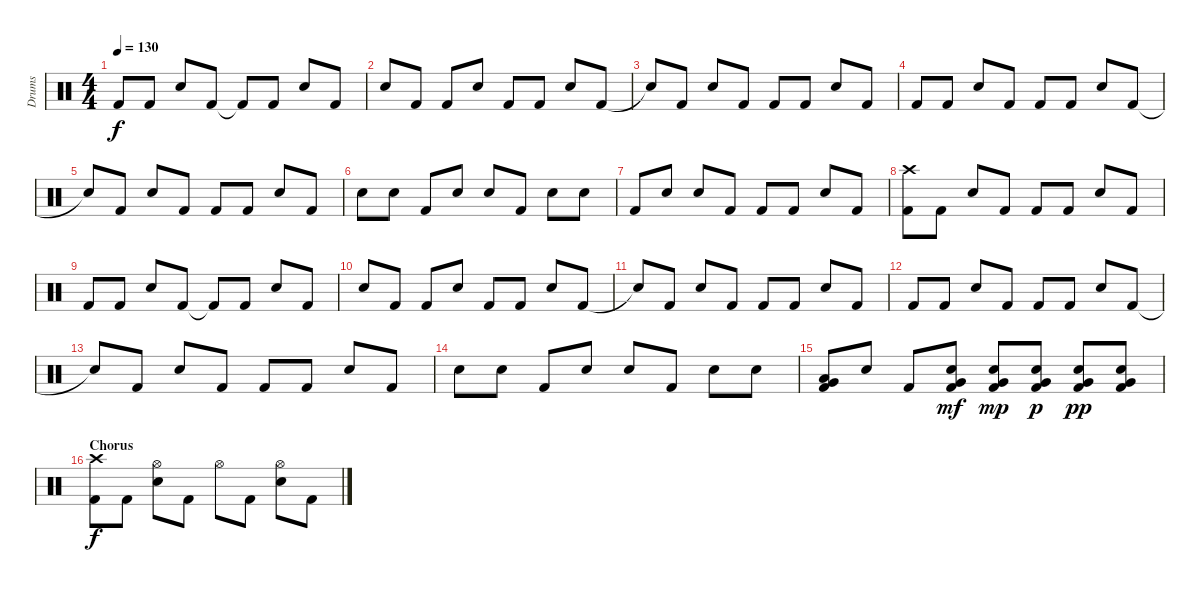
\track ("Drums" "Drums") {instrument percussion}
\staff {score}
\articulation defaults
\ts (4 4)
\tempo 130
\clef neutral
\ks c "Kick (hit) 2".8{dy f} "Kick (hit) 2".8 "Electric Snare (hit)".8 "Kick (hit) 2".8 "Kick (hit) 2"{t}.8 "Kick (hit) 2".8 "Electric Snare (hit)".8 "Kick (hit) 2".8
|
"Electric Snare (hit)".8 "Kick (hit) 2".8 "Kick (hit) 2".8 "Electric Snare (hit)".8 "Kick (hit) 2".8 "Kick (hit) 2".8 "Electric Snare (hit)".8 "Kick (hit) 2".8 |
"Snare (hit)"{t}.8 "Kick (hit) 2".8 "Electric Snare (hit)".8 "Kick (hit) 2".8 "Kick (hit) 2".8 "Kick (hit) 2".8 "Electric Snare (hit)".8 "Kick (hit) 2".8 |
"Kick (hit) 2".8 "Kick (hit) 2".8 "Electric Snare (hit)".8 "Kick (hit) 2".8 "Kick (hit) 2".8 "Kick (hit) 2".8 "Electric Snare (hit)".8 "Kick (hit) 2".8 |
"Snare (hit)"{t}.8 "Kick (hit) 2".8 "Electric Snare (hit)".8 "Kick (hit) 2".8 "Kick (hit) 2".8 "Kick (hit) 2".8 "Electric Snare (hit)".8 "Kick (hit) 2".8 |
"Electric Snare (hit)".8 "Electric Snare (hit)".8 "Kick (hit) 2".8 "Electric Snare (hit)".8 "Electric Snare (hit)".8 "Kick (hit) 2".8 "Electric Snare (hit)".8 "Electric Snare (hit)".8 |
"Kick (hit) 2".8 "Electric Snare (hit)".8 "Electric Snare (hit)".8 "Kick (hit) 2".8 "Kick (hit) 2".8 "Kick (hit) 2".8 "Electric Snare (hit)".8 "Kick (hit) 2".8 |
("Crash high (hit)" "Kick (hit) 2").8 "Kick (hit) 2".8 "Electric Snare (hit)".8 "Kick (hit) 2".8 "Kick (hit) 2".8 "Kick (hit) 2".8 "Electric Snare (hit)".8 "Kick (hit) 2".8 |
"Kick (hit) 2".8 "Kick (hit) 2".8 "Electric Snare (hit)".8 "Kick (hit) 2".8 "Kick (hit) 2"{t}.8 "Kick (hit) 2".8 "Electric Snare (hit)".8 "Kick (hit) 2".8 |
"Electric Snare (hit)".8 "Kick (hit) 2".8 "Kick (hit) 2".8 "Electric Snare (hit)".8 "Kick (hit) 2".8 "Kick (hit) 2".8 "Electric Snare (hit)".8 "Kick (hit) 2".8 |
"Snare (hit)"{t}.8 "Kick (hit) 2".8 "Electric Snare (hit)".8 "Kick (hit) 2".8 "Kick (hit) 2".8 "Kick (hit) 2".8 "Electric Snare (hit)".8 "Kick (hit) 2".8 |
"Kick (hit) 2".8 "Kick (hit) 2".8 "Electric Snare (hit)".8 "Kick (hit) 2".8 "Kick (hit) 2".8 "Kick (hit) 2".8 "Electric Snare (hit)".8 "Kick (hit) 2".8 |
"Snare (hit)"{t}.8 "Kick (hit) 2".8 "Electric Snare (hit)".8 "Kick (hit) 2".8 "Kick (hit) 2".8 "Kick (hit) 2".8 "Electric Snare (hit)".8 "Kick (hit) 2".8 |
"Electric Snare (hit)".8 "Electric Snare (hit)".8 "Kick (hit) 2".8 "Electric Snare (hit)".8 "Electric Snare (hit)".8 "Kick (hit) 2".8 "Electric Snare (hit)".8 "Electric Snare (hit)".8 |
("Low Floor Tom (hit)" "Very Low Tom (hit)" "Kick (hit) 2").8 "Electric Snare (hit)".8 "Kick (hit) 2".8 ("Very Low Tom (hit)" "Electric Snare (hit)" "Kick (hit) 2").8{dy mf} ("Very Low Tom (hit)" "Electric Snare (hit)" "Kick (hit) 2").8{dy mp} ("Very Low Tom (hit)" "Electric Snare (hit)" "Kick (hit) 2").8{dy p} ("Very Low Tom (hit)" "Electric Snare (hit)" "Kick (hit) 2").8{dy pp} ("Very Low Tom (hit)" "Electric Snare (hit)" "Kick (hit) 2").8 |
\section ("" "Chorus")
("Crash high (hit)" "Kick (hit) 2").8{dy f} "Kick (hit) 2".8 ("Hi-Hat (open)" "Electric Snare (hit)").8 "Kick (hit) 2".8 "Hi-Hat (open)".8 "Kick (hit) 2".8 ("Hi-Hat (open)" "Electric Snare (hit)").8 "Kick (hit) 2".8
